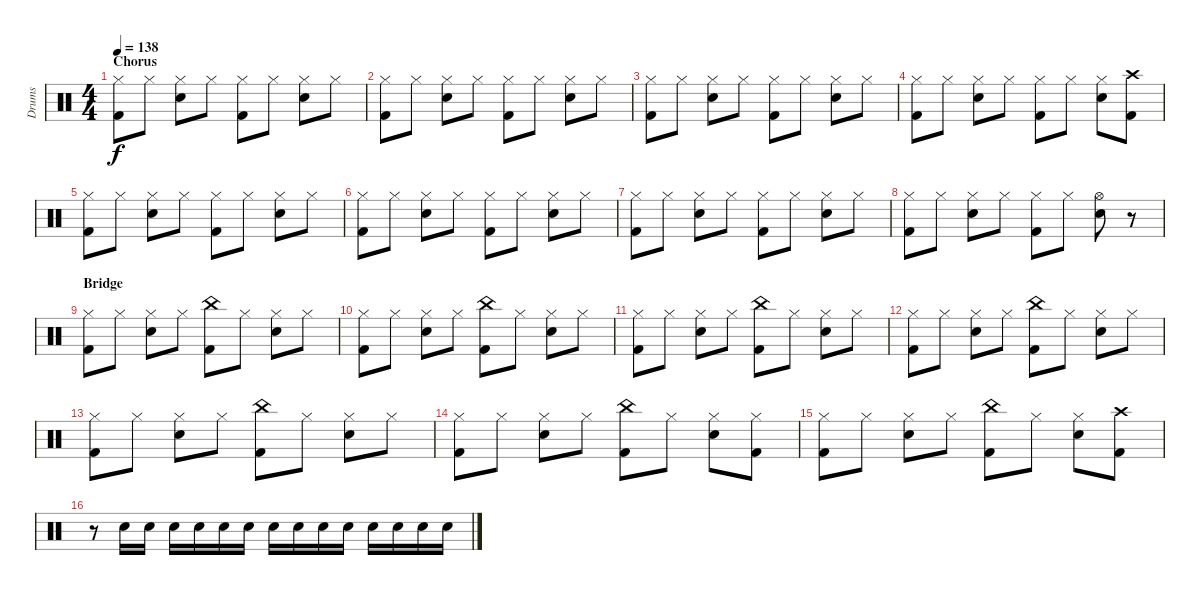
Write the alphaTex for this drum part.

\track ("Drums" "Drums") {instrument percussion}
\staff {score}
\articulation defaults
\ts (4 4)
\section ("" "Chorus")
\tempo 138
\clef neutral
\ks c
("Hi-Hat (closed)" "Kick (hit) 2").8{dy f} "Hi-Hat (closed)".8 ("Hi-Hat (closed)" "Snare (hit) 2").8 "Hi-Hat (closed)".8 ("Hi-Hat (closed)" "Kick (hit) 2").8 "Hi-Hat (closed)".8 ("Hi-Hat (closed)" "Snare (hit) 2").8 "Hi-Hat (closed)".8 |
("Hi-Hat (closed)" "Kick (hit) 2").8 "Hi-Hat (closed)".8 ("Hi-Hat (closed)" "Snare (hit) 2").8 "Hi-Hat (closed)".8 ("Hi-Hat (closed)" "Kick (hit) 2").8 "Hi-Hat (closed)".8 ("Hi-Hat (closed)" "Snare (hit) 2").8 "Hi-Hat (closed)".8 |
("Hi-Hat (closed)" "Kick (hit) 2").8 "Hi-Hat (closed)".8 ("Hi-Hat (closed)" "Snare (hit) 2").8 "Hi-Hat (closed)".8 ("Hi-Hat (closed)" "Kick (hit) 2").8 "Hi-Hat (closed)".8 ("Hi-Hat (closed)" "Snare (hit) 2").8 "Hi-Hat (closed)".8 |
("Hi-Hat (closed)" "Kick (hit) 2").8 "Hi-Hat (closed)".8 ("Hi-Hat (closed)" "Snare (hit) 2").8 "Hi-Hat (closed)".8 ("Hi-Hat (closed)" "Kick (hit) 2").8 "Hi-Hat (closed)".8 ("Hi-Hat (closed)" "Snare (hit) 2").8 ("Crash high (hit)" "Kick (hit) 2").8 |
("Hi-Hat (closed)" "Kick (hit) 2").8 "Hi-Hat (closed)".8 ("Hi-Hat (closed)" "Snare (hit) 2").8 "Hi-Hat (closed)".8 ("Hi-Hat (closed)" "Kick (hit) 2").8 "Hi-Hat (closed)".8 ("Hi-Hat (closed)" "Snare (hit) 2").8 "Hi-Hat (closed)".8 |
("Hi-Hat (closed)" "Kick (hit) 2").8 "Hi-Hat (closed)".8 ("Hi-Hat (closed)" "Snare (hit) 2").8 "Hi-Hat (closed)".8 ("Hi-Hat (closed)" "Kick (hit) 2").8 "Hi-Hat (closed)".8 ("Hi-Hat (closed)" "Snare (hit) 2").8 "Hi-Hat (closed)".8 |
("Hi-Hat (closed)" "Kick (hit) 2").8 "Hi-Hat (closed)".8 ("Hi-Hat (closed)" "Snare (hit) 2").8 "Hi-Hat (closed)".8 ("Hi-Hat (closed)" "Kick (hit) 2").8 "Hi-Hat (closed)".8 ("Hi-Hat (closed)" "Snare (hit) 2").8 "Hi-Hat (closed)".8 |
("Hi-Hat (closed)" "Kick (hit) 2").8 "Hi-Hat (closed)".8 ("Hi-Hat (closed)" "Snare (hit) 2").8 "Hi-Hat (closed)".8 ("Hi-Hat (closed)" "Kick (hit) 2").8 "Hi-Hat (closed)".8 ("Hi-Hat (open)" "Snare (hit) 2").8 r.8 |
\section ("" "Bridge")
("Hi-Hat (closed)" "Kick (hit) 2").8 "Hi-Hat (closed)".8 ("Hi-Hat (closed)" "Snare (hit) 2").8 "Hi-Hat (closed)".8 ("China (hit)" "Kick (hit) 2").8 "Hi-Hat (closed)".8 ("Hi-Hat (closed)" "Snare (hit) 2").8 "Hi-Hat (closed)".8 |
("Hi-Hat (closed)" "Kick (hit) 2").8 "Hi-Hat (closed)".8 ("Hi-Hat (closed)" "Snare (hit) 2").8 "Hi-Hat (closed)".8 ("China (hit)" "Kick (hit) 2").8 "Hi-Hat (closed)".8 ("Hi-Hat (closed)" "Snare (hit) 2").8 "Hi-Hat (closed)".8 |
("Hi-Hat (closed)" "Kick (hit) 2").8 "Hi-Hat (closed)".8 ("Hi-Hat (closed)" "Snare (hit) 2").8 "Hi-Hat (closed)".8 ("China (hit)" "Kick (hit) 2").8 "Hi-Hat (closed)".8 ("Hi-Hat (closed)" "Snare (hit) 2").8 "Hi-Hat (closed)".8 |
("Hi-Hat (closed)" "Kick (hit) 2").8 "Hi-Hat (closed)".8 ("Hi-Hat (closed)" "Snare (hit) 2").8 "Hi-Hat (closed)".8 ("China (hit)" "Kick (hit) 2").8 "Hi-Hat (closed)".8 ("Hi-Hat (closed)" "Snare (hit) 2").8 "Hi-Hat (closed)".8 |
("Hi-Hat (closed)" "Kick (hit) 2").8 "Hi-Hat (closed)".8 ("Hi-Hat (closed)" "Snare (hit) 2").8 "Hi-Hat (closed)".8 ("China (hit)" "Kick (hit) 2").8 "Hi-Hat (closed)".8 ("Hi-Hat (closed)" "Snare (hit) 2").8 "Hi-Hat (closed)".8 |
("Hi-Hat (closed)" "Kick (hit) 2").8 "Hi-Hat (closed)".8 ("Hi-Hat (closed)" "Snare (hit) 2").8 "Hi-Hat (closed)".8 ("China (hit)" "Kick (hit) 2").8 "Hi-Hat (closed)".8 ("Hi-Hat (closed)" "Snare (hit) 2").8 ("Hi-Hat (closed)" "Kick (hit) 2").8 |
("Hi-Hat (closed)" "Kick (hit) 2").8 "Hi-Hat (closed)".8 ("Hi-Hat (closed)" "Snare (hit) 2").8 "Hi-Hat (closed)".8 ("China (hit)" "Kick (hit) 2").8 "Hi-Hat (closed)".8 ("Hi-Hat (closed)" "Snare (hit) 2").8 ("Crash high (hit)" "Kick (hit) 2").8 |
r.8 "Snare (hit) 2".16 "Snare (hit) 2".16 "Snare (hit) 2".16 "Snare (hit) 2".16 "Snare (hit) 2".16 "Snare (hit) 2".16 "Snare (hit) 2".16 "Snare (hit) 2".16 "Snare (hit) 2".16 "Snare (hit) 2".16 "Snare (hit) 2".16 "Snare (hit) 2".16 "Snare (hit) 2".16 "Snare (hit) 2".16
